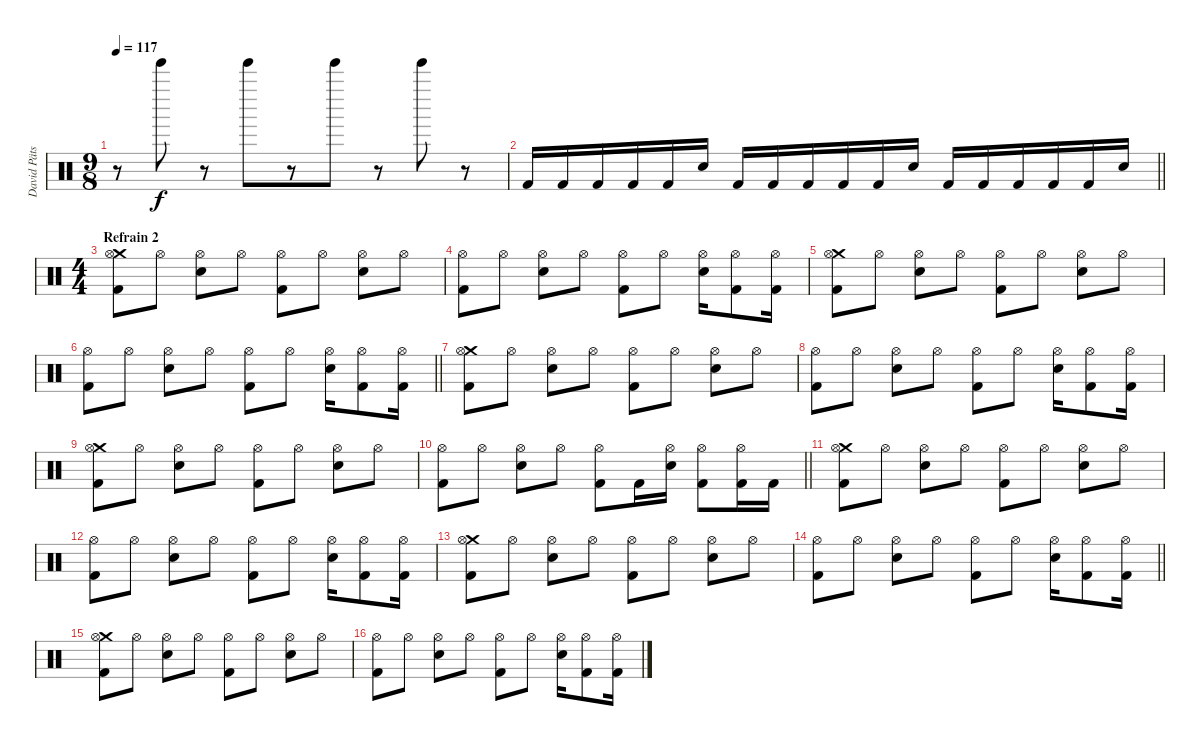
\track ("David Pätsch" "David Päts") {instrument percussion}
\staff {score}
\articulation defaults
\ts (9 8)
\tempo 117
\clef neutral
\ks c
r.8{dy f} "Tinkle Bell (hit)".8 r.8 "Tinkle Bell (hit)".8 r.8 "Tinkle Bell (hit)".8 r.8 "Tinkle Bell (hit)".8 r.8 |
\barLineRight lightlight "Kick (hit) 2".16{volume 13} "Kick (hit) 2".16 "Kick (hit) 2".16 "Kick (hit) 2".16 "Kick (hit) 2".16 "Snare (hit) 2".16 "Kick (hit) 2".16 "Kick (hit) 2".16 "Kick (hit) 2".16 "Kick (hit) 2".16 "Kick (hit) 2".16 "Snare (hit) 2".16 "Kick (hit) 2".16 "Kick (hit) 2".16 "Kick (hit) 2".16 "Kick (hit) 2".16 "Kick (hit) 2".16 "Snare (hit) 2".16
|
\ts (4 4)
\section ("" "Refrain 2")
("Crash medium (hit)" "Hi-Hat (open)" "Kick (hit) 2").8 "Hi-Hat (open)".8 ("Hi-Hat (open)" "Snare (hit) 2").8 "Hi-Hat (open)".8 ("Hi-Hat (open)" "Kick (hit) 2").8 "Hi-Hat (open)".8 ("Hi-Hat (open)" "Snare (hit) 2").8 "Hi-Hat (open)".8 |
("Hi-Hat (open)" "Kick (hit) 2").8 "Hi-Hat (open)".8 ("Hi-Hat (open)" "Snare (hit) 2").8 "Hi-Hat (open)".8 ("Hi-Hat (open)" "Kick (hit) 2").8 "Hi-Hat (open)".8 ("Hi-Hat (open)" "Snare (hit) 2").16 ("Hi-Hat (open)" "Kick (hit) 2").8 ("Hi-Hat (open)" "Kick (hit) 2").16 |
("Crash medium (hit)" "Hi-Hat (open)" "Kick (hit) 2").8 "Hi-Hat (open)".8 ("Hi-Hat (open)" "Snare (hit) 2").8 "Hi-Hat (open)".8 ("Hi-Hat (open)" "Kick (hit) 2").8 "Hi-Hat (open)".8 ("Hi-Hat (open)" "Snare (hit) 2").8 "Hi-Hat (open)".8 |
\barLineRight lightlight
("Hi-Hat (open)" "Kick (hit) 2").8 "Hi-Hat (open)".8 ("Hi-Hat (open)" "Snare (hit) 2").8 "Hi-Hat (open)".8 ("Hi-Hat (open)" "Kick (hit) 2").8 "Hi-Hat (open)".8 ("Hi-Hat (open)" "Snare (hit) 2").16 ("Hi-Hat (open)" "Kick (hit) 2").8 ("Hi-Hat (open)" "Kick (hit) 2").16 |
("Crash medium (hit)" "Hi-Hat (open)" "Kick (hit) 2").8 "Hi-Hat (open)".8 ("Hi-Hat (open)" "Snare (hit) 2").8 "Hi-Hat (open)".8 ("Hi-Hat (open)" "Kick (hit) 2").8 "Hi-Hat (open)".8 ("Hi-Hat (open)" "Snare (hit) 2").8 "Hi-Hat (open)".8 |
("Hi-Hat (open)" "Kick (hit) 2").8 "Hi-Hat (open)".8 ("Hi-Hat (open)" "Snare (hit) 2").8 "Hi-Hat (open)".8 ("Hi-Hat (open)" "Kick (hit) 2").8 "Hi-Hat (open)".8 ("Hi-Hat (open)" "Snare (hit) 2").16 ("Hi-Hat (open)" "Kick (hit) 2").8 ("Hi-Hat (open)" "Kick (hit) 2").16 |
("Crash medium (hit)" "Hi-Hat (open)" "Kick (hit) 2").8 "Hi-Hat (open)".8 ("Hi-Hat (open)" "Snare (hit) 2").8 "Hi-Hat (open)".8 ("Hi-Hat (open)" "Kick (hit) 2").8 "Hi-Hat (open)".8 ("Hi-Hat (open)" "Snare (hit) 2").8 "Hi-Hat (open)".8 |
\barLineRight lightlight
("Hi-Hat (open)" "Kick (hit) 2").8 "Hi-Hat (open)".8 ("Hi-Hat (open)" "Snare (hit) 2").8 "Hi-Hat (open)".8 ("Hi-Hat (open)" "Kick (hit) 2").8 "Kick (hit) 2".16 ("Hi-Hat (open)" "Snare (hit) 2").16 ("Hi-Hat (open)" "Kick (hit) 2").8 ("Hi-Hat (open)" "Kick (hit) 2").16 "Kick (hit) 2".16 |
("Crash medium (hit)" "Hi-Hat (open)" "Kick (hit) 2").8 "Hi-Hat (open)".8 ("Hi-Hat (open)" "Snare (hit) 2").8 "Hi-Hat (open)".8 ("Hi-Hat (open)" "Kick (hit) 2").8 "Hi-Hat (open)".8 ("Hi-Hat (open)" "Snare (hit) 2").8 "Hi-Hat (open)".8 |
("Hi-Hat (open)" "Kick (hit) 2").8 "Hi-Hat (open)".8 ("Hi-Hat (open)" "Snare (hit) 2").8 "Hi-Hat (open)".8 ("Hi-Hat (open)" "Kick (hit) 2").8 "Hi-Hat (open)".8 ("Hi-Hat (open)" "Snare (hit) 2").16 ("Hi-Hat (open)" "Kick (hit) 2").8 ("Hi-Hat (open)" "Kick (hit) 2").16 |
("Crash medium (hit)" "Hi-Hat (open)" "Kick (hit) 2").8 "Hi-Hat (open)".8 ("Hi-Hat (open)" "Snare (hit) 2").8 "Hi-Hat (open)".8 ("Hi-Hat (open)" "Kick (hit) 2").8 "Hi-Hat (open)".8 ("Hi-Hat (open)" "Snare (hit) 2").8 "Hi-Hat (open)".8 |
\barLineRight lightlight
("Hi-Hat (open)" "Kick (hit) 2").8 "Hi-Hat (open)".8 ("Hi-Hat (open)" "Snare (hit) 2").8 "Hi-Hat (open)".8 ("Hi-Hat (open)" "Kick (hit) 2").8 "Hi-Hat (open)".8 ("Hi-Hat (open)" "Snare (hit) 2").16 ("Hi-Hat (open)" "Kick (hit) 2").8 ("Hi-Hat (open)" "Kick (hit) 2").16 |
("Crash medium (hit)" "Hi-Hat (open)" "Kick (hit) 2").8 "Hi-Hat (open)".8 ("Hi-Hat (open)" "Snare (hit) 2").8 "Hi-Hat (open)".8 ("Hi-Hat (open)" "Kick (hit) 2").8 "Hi-Hat (open)".8 ("Hi-Hat (open)" "Snare (hit) 2").8 "Hi-Hat (open)".8 |
("Hi-Hat (open)" "Kick (hit) 2").8 "Hi-Hat (open)".8 ("Hi-Hat (open)" "Snare (hit) 2").8 "Hi-Hat (open)".8 ("Hi-Hat (open)" "Kick (hit) 2").8 "Hi-Hat (open)".8 ("Hi-Hat (open)" "Snare (hit) 2").16 ("Hi-Hat (open)" "Kick (hit) 2").8 ("Hi-Hat (open)" "Kick (hit) 2").16
